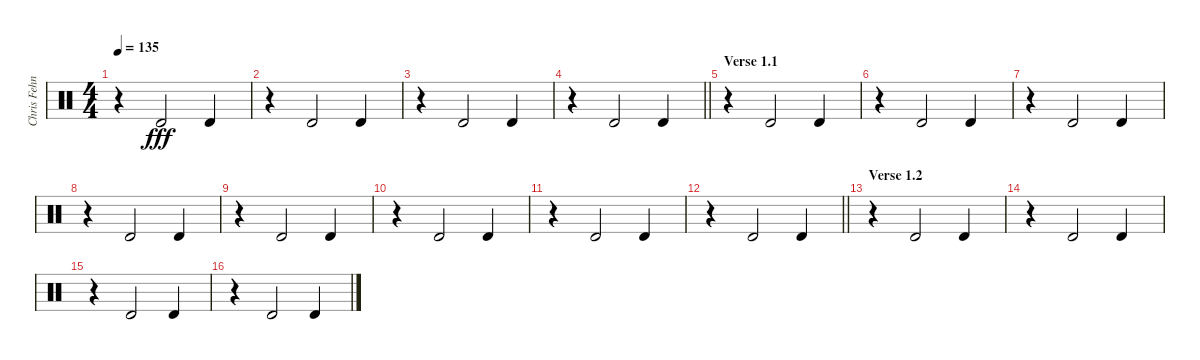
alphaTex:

\track ("Chris Fehn" "Chris Fehn") {instrument percussion}
\staff {score}
\articulation defaults
\ts (4 4)
\tempo 135
\clef neutral
\ks c
r.4{dy fff} "Timbale high (hit)".2 "Timbale high (hit)".4 |
r.4 "Timbale high (hit)".2 "Timbale high (hit)".4 |
r.4 "Timbale high (hit)".2 "Timbale high (hit)".4 |
\barLineRight lightlight
r.4 "Timbale high (hit)".2 "Timbale high (hit)".4 |
\section ("" "Verse 1.1")
r.4 "Timbale high (hit)".2 "Timbale high (hit)".4 |
r.4 "Timbale high (hit)".2 "Timbale high (hit)".4 |
r.4 "Timbale high (hit)".2 "Timbale high (hit)".4 |
r.4 "Timbale high (hit)".2 "Timbale high (hit)".4 |
r.4 "Timbale high (hit)".2 "Timbale high (hit)".4 |
r.4 "Timbale high (hit)".2 "Timbale high (hit)".4 |
r.4 "Timbale high (hit)".2 "Timbale high (hit)".4 |
\barLineRight lightlight
r.4 "Timbale high (hit)".2 "Timbale high (hit)".4 |
\section ("" "Verse 1.2")
r.4 "Timbale high (hit)".2 "Timbale high (hit)".4 |
r.4 "Timbale high (hit)".2 "Timbale high (hit)".4 |
r.4 "Timbale high (hit)".2 "Timbale high (hit)".4 |
r.4 "Timbale high (hit)".2 "Timbale high (hit)".4
